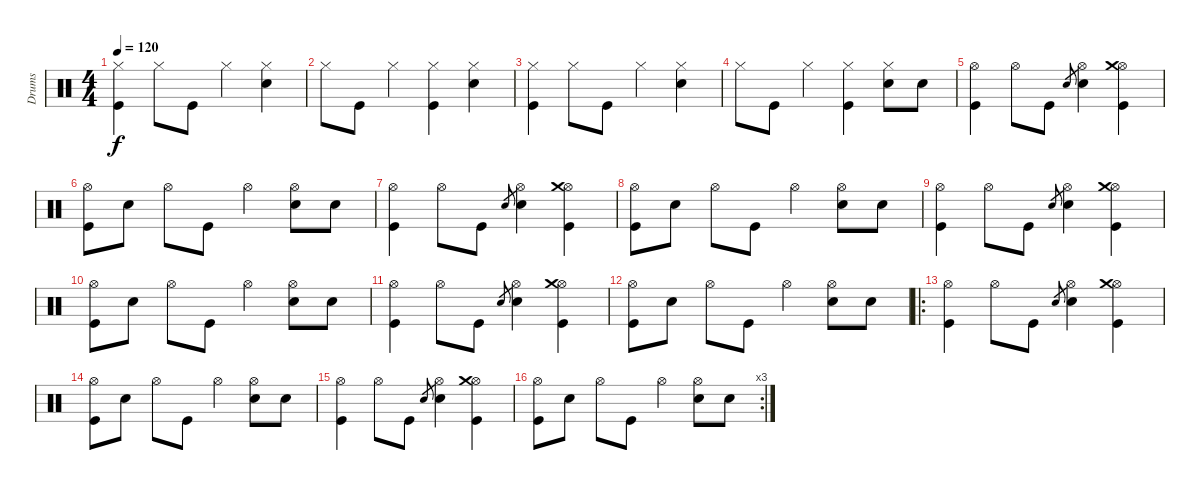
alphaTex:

\track ("Drums" "Drums") {instrument percussion}
\staff {score}
\articulation defaults
\ts (4 4)
\tempo 120
\clef neutral
\ks c
("Hi-Hat (closed)" "Kick (hit)").4{dy f} "Hi-Hat (closed)".8 "Kick (hit)".8 "Hi-Hat (closed)".4 ("Hi-Hat (closed)" "Electric Snare (hit)").4 |
"Hi-Hat (closed)".8 "Kick (hit)".8 "Hi-Hat (closed)".4 ("Hi-Hat (closed)" "Kick (hit)").4 ("Hi-Hat (closed)" "Electric Snare (hit)").4 |
("Hi-Hat (closed)" "Kick (hit)").4 "Hi-Hat (closed)".8 "Kick (hit)".8 "Hi-Hat (closed)".4 ("Hi-Hat (closed)" "Electric Snare (hit)").4 |
"Hi-Hat (closed)".8 "Kick (hit)".8 "Hi-Hat (closed)".4 ("Hi-Hat (closed)" "Kick (hit)").4 ("Hi-Hat (closed)" "Electric Snare (hit)").8 "Electric Snare (hit)".8 |
("Hi-Hat (open)" "Kick (hit)").4 "Hi-Hat (open)".8 "Kick (hit)".8 "Electric Snare (hit)".8{gr} ("Hi-Hat (open)" "Electric Snare (hit)").4 ("Hi-Hat (open)" "Crash medium (hit)" "Kick (hit)").4 |
("Hi-Hat (open)" "Kick (hit)").8 "Electric Snare (hit)".8 "Hi-Hat (open)".8 "Kick (hit)".8 "Hi-Hat (open)".4 ("Hi-Hat (open)" "Electric Snare (hit)").8 "Electric Snare (hit)".8 |
("Hi-Hat (open)" "Kick (hit)").4 "Hi-Hat (open)".8 "Kick (hit)".8 "Electric Snare (hit)".8{gr} ("Hi-Hat (open)" "Electric Snare (hit)").4 ("Hi-Hat (open)" "Crash medium (hit)" "Kick (hit)").4 |
("Hi-Hat (open)" "Kick (hit)").8 "Electric Snare (hit)".8 "Hi-Hat (open)".8 "Kick (hit)".8 "Hi-Hat (open)".4 ("Hi-Hat (open)" "Electric Snare (hit)").8 "Electric Snare (hit)".8 |
("Hi-Hat (open)" "Kick (hit)").4 "Hi-Hat (open)".8 "Kick (hit)".8 "Electric Snare (hit)".8{gr} ("Hi-Hat (open)" "Electric Snare (hit)").4 ("Hi-Hat (open)" "Crash medium (hit)" "Kick (hit)").4 |
("Hi-Hat (open)" "Kick (hit)").8 "Electric Snare (hit)".8 "Hi-Hat (open)".8 "Kick (hit)".8 "Hi-Hat (open)".4 ("Hi-Hat (open)" "Electric Snare (hit)").8 "Electric Snare (hit)".8 |
("Hi-Hat (open)" "Kick (hit)").4 "Hi-Hat (open)".8 "Kick (hit)".8 "Electric Snare (hit)".8{gr} ("Hi-Hat (open)" "Electric Snare (hit)").4 ("Hi-Hat (open)" "Crash medium (hit)" "Kick (hit)").4 |
("Hi-Hat (open)" "Kick (hit)").8 "Electric Snare (hit)".8 "Hi-Hat (open)".8 "Kick (hit)".8 "Hi-Hat (open)".4 ("Hi-Hat (open)" "Electric Snare (hit)").8 "Electric Snare (hit)".8 |
\ro
("Hi-Hat (open)" "Kick (hit)").4 "Hi-Hat (open)".8 "Kick (hit)".8 "Electric Snare (hit)".8{gr} ("Hi-Hat (open)" "Electric Snare (hit)").4 ("Hi-Hat (open)" "Crash medium (hit)" "Kick (hit)").4 |
("Hi-Hat (open)" "Kick (hit)").8 "Electric Snare (hit)".8 "Hi-Hat (open)".8 "Kick (hit)".8 "Hi-Hat (open)".4 ("Hi-Hat (open)" "Electric Snare (hit)").8 "Electric Snare (hit)".8 |
("Hi-Hat (open)" "Kick (hit)").4 "Hi-Hat (open)".8 "Kick (hit)".8 "Electric Snare (hit)".8{gr} ("Hi-Hat (open)" "Electric Snare (hit)").4 ("Hi-Hat (open)" "Crash medium (hit)" "Kick (hit)").4 |
\rc 3
("Hi-Hat (open)" "Kick (hit)").8 "Electric Snare (hit)".8 "Hi-Hat (open)".8 "Kick (hit)".8 "Hi-Hat (open)".4 ("Hi-Hat (open)" "Electric Snare (hit)").8 "Electric Snare (hit)".8
